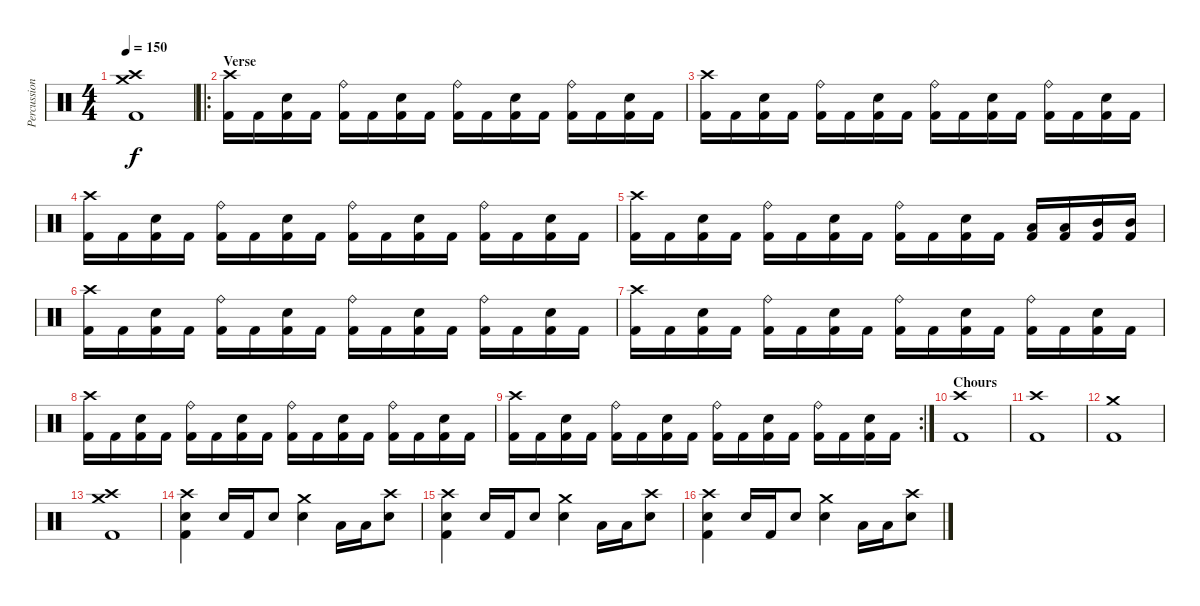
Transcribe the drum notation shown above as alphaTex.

\track ("Percussioni" "Percussion") {instrument percussion}
\staff {score}
\articulation defaults
\ts (4 4)
\tempo 150
\clef neutral
\ks c
("Crash medium (hit)" "Crash high (hit)" "Kick (hit) 2").1{dy f} |
\ro
\section ("" "Verse")
("Crash high (hit)" "Kick (hit) 2").16 "Kick (hit) 2".16 ("Snare (hit) 2" "Kick (hit) 2").16 "Kick (hit) 2".16 ("Kick (hit) 2" "Ride (bell)").16 "Kick (hit) 2".16 ("Snare (hit) 2" "Kick (hit) 2").16 "Kick (hit) 2".16 ("Kick (hit) 2" "Ride (bell)").16 "Kick (hit) 2".16 ("Snare (hit) 2" "Kick (hit) 2").16 "Kick (hit) 2".16 ("Kick (hit) 2" "Ride (bell)").16 "Kick (hit) 2".16 ("Snare (hit) 2" "Kick (hit) 2").16 "Kick (hit) 2".16 |
("Crash high (hit)" "Kick (hit) 2").16 "Kick (hit) 2".16 ("Snare (hit) 2" "Kick (hit) 2").16 "Kick (hit) 2".16 ("Kick (hit) 2" "Ride (bell)").16 "Kick (hit) 2".16 ("Snare (hit) 2" "Kick (hit) 2").16 "Kick (hit) 2".16 ("Kick (hit) 2" "Ride (bell)").16 "Kick (hit) 2".16 ("Snare (hit) 2" "Kick (hit) 2").16 "Kick (hit) 2".16 ("Kick (hit) 2" "Ride (bell)").16 "Kick (hit) 2".16 ("Snare (hit) 2" "Kick (hit) 2").16 "Kick (hit) 2".16 |
("Crash high (hit)" "Kick (hit) 2").16 "Kick (hit) 2".16 ("Snare (hit) 2" "Kick (hit) 2").16 "Kick (hit) 2".16 ("Kick (hit) 2" "Ride (bell)").16 "Kick (hit) 2".16 ("Snare (hit) 2" "Kick (hit) 2").16 "Kick (hit) 2".16 ("Kick (hit) 2" "Ride (bell)").16 "Kick (hit) 2".16 ("Snare (hit) 2" "Kick (hit) 2").16 "Kick (hit) 2".16 ("Kick (hit) 2" "Ride (bell)").16 "Kick (hit) 2".16 ("Snare (hit) 2" "Kick (hit) 2").16 "Kick (hit) 2".16 |
("Crash high (hit)" "Kick (hit) 2").16 "Kick (hit) 2".16 ("Snare (hit) 2" "Kick (hit) 2").16 "Kick (hit) 2".16 ("Kick (hit) 2" "Ride (bell)").16 "Kick (hit) 2".16 ("Snare (hit) 2" "Kick (hit) 2").16 "Kick (hit) 2".16 ("Kick (hit) 2" "Ride (bell)").16 "Kick (hit) 2".16 ("Snare (hit) 2" "Kick (hit) 2").16 "Kick (hit) 2".16 ("Low Tom (hit)" "Kick (hit) 2").16 ("Low Tom (hit)" "Kick (hit) 2").16 ("Mid Tom (hit)" "Kick (hit) 2").16 ("Mid Tom (hit)" "Kick (hit) 2").16 |
("Crash high (hit)" "Kick (hit) 2").16 "Kick (hit) 2".16 ("Snare (hit) 2" "Kick (hit) 2").16 "Kick (hit) 2".16 ("Kick (hit) 2" "Ride (bell)").16 "Kick (hit) 2".16 ("Snare (hit) 2" "Kick (hit) 2").16 "Kick (hit) 2".16 ("Kick (hit) 2" "Ride (bell)").16 "Kick (hit) 2".16 ("Snare (hit) 2" "Kick (hit) 2").16 "Kick (hit) 2".16 ("Kick (hit) 2" "Ride (bell)").16 "Kick (hit) 2".16 ("Snare (hit) 2" "Kick (hit) 2").16 "Kick (hit) 2".16 |
("Crash high (hit)" "Kick (hit) 2").16 "Kick (hit) 2".16 ("Snare (hit) 2" "Kick (hit) 2").16 "Kick (hit) 2".16 ("Kick (hit) 2" "Ride (bell)").16 "Kick (hit) 2".16 ("Snare (hit) 2" "Kick (hit) 2").16 "Kick (hit) 2".16 ("Kick (hit) 2" "Ride (bell)").16 "Kick (hit) 2".16 ("Snare (hit) 2" "Kick (hit) 2").16 "Kick (hit) 2".16 ("Kick (hit) 2" "Ride (bell)").16 "Kick (hit) 2".16 ("Snare (hit) 2" "Kick (hit) 2").16 "Kick (hit) 2".16 |
("Crash high (hit)" "Kick (hit) 2").16 "Kick (hit) 2".16 ("Snare (hit) 2" "Kick (hit) 2").16 "Kick (hit) 2".16 ("Kick (hit) 2" "Ride (bell)").16 "Kick (hit) 2".16 ("Snare (hit) 2" "Kick (hit) 2").16 "Kick (hit) 2".16 ("Kick (hit) 2" "Ride (bell)").16 "Kick (hit) 2".16 ("Snare (hit) 2" "Kick (hit) 2").16 "Kick (hit) 2".16 ("Kick (hit) 2" "Ride (bell)").16 "Kick (hit) 2".16 ("Snare (hit) 2" "Kick (hit) 2").16 "Kick (hit) 2".16 |
\rc 2
("Crash high (hit)" "Kick (hit) 2").16 "Kick (hit) 2".16 ("Snare (hit) 2" "Kick (hit) 2").16 "Kick (hit) 2".16 ("Kick (hit) 2" "Ride (bell)").16 "Kick (hit) 2".16 ("Snare (hit) 2" "Kick (hit) 2").16 "Kick (hit) 2".16 ("Kick (hit) 2" "Ride (bell)").16 "Kick (hit) 2".16 ("Snare (hit) 2" "Kick (hit) 2").16 "Kick (hit) 2".16 ("Kick (hit) 2" "Ride (bell)").16 "Kick (hit) 2".16 ("Snare (hit) 2" "Kick (hit) 2").16 "Kick (hit) 2".16 |
\section ("" "Chours")
("Crash high (hit)" "Kick (hit) 2").1 |
("Crash high (hit)" "Kick (hit) 2").1 |
("Crash medium (hit)" "Kick (hit) 2").1 |
("Crash medium (hit)" "Crash high (hit)" "Kick (hit) 2").1 |
("Crash high (hit)" "Snare (hit) 2" "Kick (hit) 2").4 "Snare (hit) 2".16 "Kick (hit) 2".16 "Snare (hit) 2".8 ("Crash medium (hit)" "Snare (hit) 2").4 "Low Tom (hit)".16 "Low Tom (hit)".16 ("Crash high (hit)" "Snare (hit) 2").8 |
("Crash high (hit)" "Snare (hit) 2" "Kick (hit) 2").4 "Snare (hit) 2".16 "Kick (hit) 2".16 "Snare (hit) 2".8 ("Crash medium (hit)" "Snare (hit) 2").4 "Low Tom (hit)".16 "Low Tom (hit)".16 ("Crash high (hit)" "Snare (hit) 2").8 |
("Crash high (hit)" "Snare (hit) 2" "Kick (hit) 2").4 "Snare (hit) 2".16 "Kick (hit) 2".16 "Snare (hit) 2".8 ("Crash medium (hit)" "Snare (hit) 2").4 "Low Tom (hit)".16 "Low Tom (hit)".16 ("Crash high (hit)" "Snare (hit) 2").8
